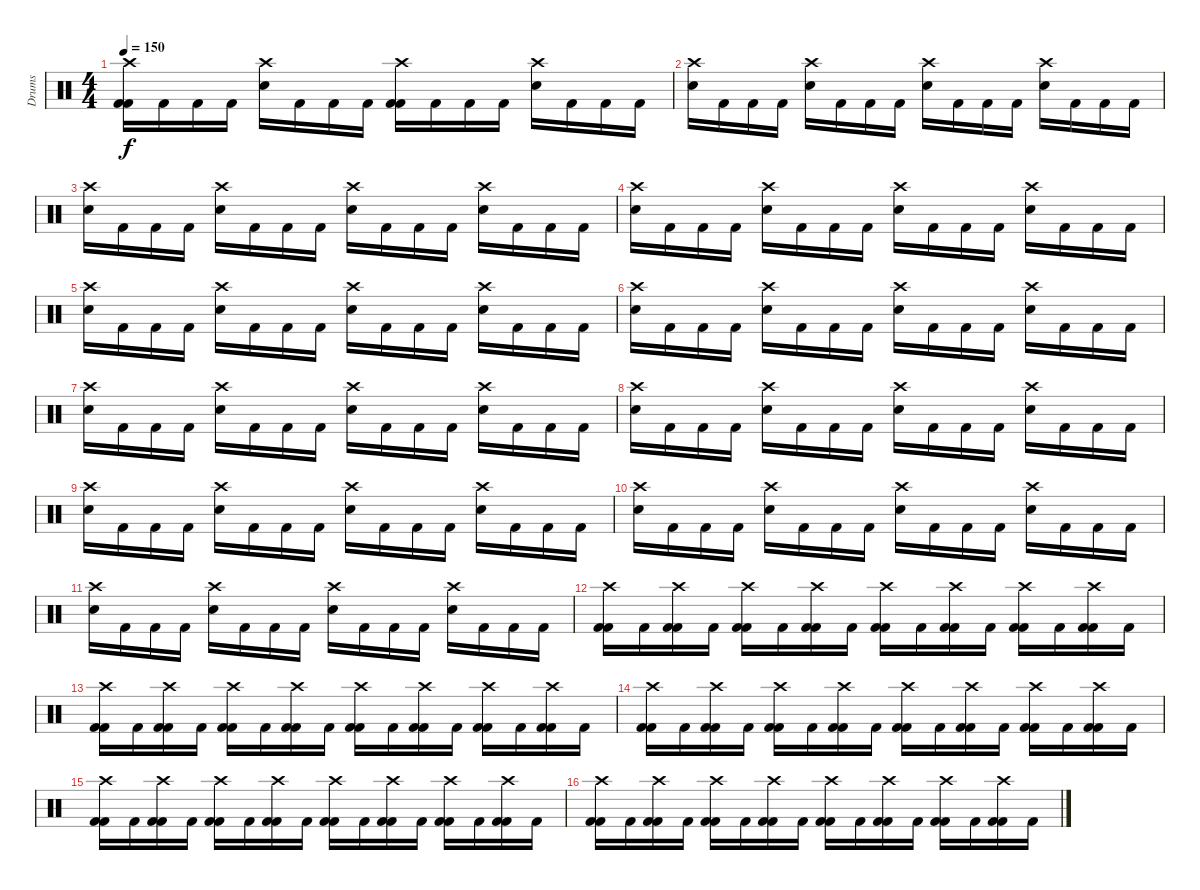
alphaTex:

\track ("Drums" "Drums") {instrument percussion}
\staff {score}
\articulation defaults
\ts (4 4)
\tempo 150
\clef neutral
\ks c
("Crash high (hit)" "Kick (hit) 2" "Kick (hit) 2").16{dy f} "Kick (hit) 2".16 "Kick (hit) 2".16 "Kick (hit) 2".16 ("Electric Snare (hit)" "Crash high (hit)").16 "Kick (hit) 2".16 "Kick (hit) 2".16 "Kick (hit) 2".16 ("Kick (hit) 2" "Kick (hit) 2" "Crash high (hit)").16 "Kick (hit) 2".16 "Kick (hit) 2".16 "Kick (hit) 2".16 ("Crash high (hit)" "Electric Snare (hit)").16 "Kick (hit) 2".16 "Kick (hit) 2".16 "Kick (hit) 2".16 |
("Crash high (hit)" "Electric Snare (hit)").16 "Kick (hit) 2".16 "Kick (hit) 2".16 "Kick (hit) 2".16 ("Crash high (hit)" "Electric Snare (hit)").16 "Kick (hit) 2".16 "Kick (hit) 2".16 "Kick (hit) 2".16 ("Electric Snare (hit)" "Crash high (hit)").16 "Kick (hit) 2".16 "Kick (hit) 2".16 "Kick (hit) 2".16 ("Crash high (hit)" "Electric Snare (hit)").16 "Kick (hit) 2".16 "Kick (hit) 2".16 "Kick (hit) 2".16 |
("Crash high (hit)" "Electric Snare (hit)").16 "Kick (hit) 2".16 "Kick (hit) 2".16 "Kick (hit) 2".16 ("Crash high (hit)" "Electric Snare (hit)").16 "Kick (hit) 2".16 "Kick (hit) 2".16 "Kick (hit) 2".16 ("Electric Snare (hit)" "Crash high (hit)").16 "Kick (hit) 2".16 "Kick (hit) 2".16 "Kick (hit) 2".16 ("Crash high (hit)" "Electric Snare (hit)").16 "Kick (hit) 2".16 "Kick (hit) 2".16 "Kick (hit) 2".16 |
("Crash high (hit)" "Electric Snare (hit)").16 "Kick (hit) 2".16 "Kick (hit) 2".16 "Kick (hit) 2".16 ("Crash high (hit)" "Electric Snare (hit)").16 "Kick (hit) 2".16 "Kick (hit) 2".16 "Kick (hit) 2".16 ("Electric Snare (hit)" "Crash high (hit)").16 "Kick (hit) 2".16 "Kick (hit) 2".16 "Kick (hit) 2".16 ("Crash high (hit)" "Electric Snare (hit)").16 "Kick (hit) 2".16 "Kick (hit) 2".16 "Kick (hit) 2".16 |
("Crash high (hit)" "Electric Snare (hit)").16 "Kick (hit) 2".16 "Kick (hit) 2".16 "Kick (hit) 2".16 ("Crash high (hit)" "Electric Snare (hit)").16 "Kick (hit) 2".16 "Kick (hit) 2".16 "Kick (hit) 2".16 ("Electric Snare (hit)" "Crash high (hit)").16 "Kick (hit) 2".16 "Kick (hit) 2".16 "Kick (hit) 2".16 ("Crash high (hit)" "Electric Snare (hit)").16 "Kick (hit) 2".16 "Kick (hit) 2".16 "Kick (hit) 2".16 |
("Crash high (hit)" "Electric Snare (hit)").16 "Kick (hit) 2".16 "Kick (hit) 2".16 "Kick (hit) 2".16 ("Crash high (hit)" "Electric Snare (hit)").16 "Kick (hit) 2".16 "Kick (hit) 2".16 "Kick (hit) 2".16 ("Electric Snare (hit)" "Crash high (hit)").16 "Kick (hit) 2".16 "Kick (hit) 2".16 "Kick (hit) 2".16 ("Crash high (hit)" "Electric Snare (hit)").16 "Kick (hit) 2".16 "Kick (hit) 2".16 "Kick (hit) 2".16 |
("Crash high (hit)" "Electric Snare (hit)").16 "Kick (hit) 2".16 "Kick (hit) 2".16 "Kick (hit) 2".16 ("Crash high (hit)" "Electric Snare (hit)").16 "Kick (hit) 2".16 "Kick (hit) 2".16 "Kick (hit) 2".16 ("Electric Snare (hit)" "Crash high (hit)").16 "Kick (hit) 2".16 "Kick (hit) 2".16 "Kick (hit) 2".16 ("Crash high (hit)" "Electric Snare (hit)").16 "Kick (hit) 2".16 "Kick (hit) 2".16 "Kick (hit) 2".16 |
("Crash high (hit)" "Electric Snare (hit)").16 "Kick (hit) 2".16 "Kick (hit) 2".16 "Kick (hit) 2".16 ("Crash high (hit)" "Electric Snare (hit)").16 "Kick (hit) 2".16 "Kick (hit) 2".16 "Kick (hit) 2".16 ("Electric Snare (hit)" "Crash high (hit)").16 "Kick (hit) 2".16 "Kick (hit) 2".16 "Kick (hit) 2".16 ("Crash high (hit)" "Electric Snare (hit)").16 "Kick (hit) 2".16 "Kick (hit) 2".16 "Kick (hit) 2".16 |
("Crash high (hit)" "Electric Snare (hit)").16 "Kick (hit) 2".16 "Kick (hit) 2".16 "Kick (hit) 2".16 ("Crash high (hit)" "Electric Snare (hit)").16 "Kick (hit) 2".16 "Kick (hit) 2".16 "Kick (hit) 2".16 ("Electric Snare (hit)" "Crash high (hit)").16 "Kick (hit) 2".16 "Kick (hit) 2".16 "Kick (hit) 2".16 ("Crash high (hit)" "Electric Snare (hit)").16 "Kick (hit) 2".16 "Kick (hit) 2".16 "Kick (hit) 2".16 |
("Crash high (hit)" "Electric Snare (hit)").16 "Kick (hit) 2".16 "Kick (hit) 2".16 "Kick (hit) 2".16 ("Crash high (hit)" "Electric Snare (hit)").16 "Kick (hit) 2".16 "Kick (hit) 2".16 "Kick (hit) 2".16 ("Electric Snare (hit)" "Crash high (hit)").16 "Kick (hit) 2".16 "Kick (hit) 2".16 "Kick (hit) 2".16 ("Crash high (hit)" "Electric Snare (hit)").16 "Kick (hit) 2".16 "Kick (hit) 2".16 "Kick (hit) 2".16 |
("Crash high (hit)" "Electric Snare (hit)").16 "Kick (hit) 2".16 "Kick (hit) 2".16 "Kick (hit) 2".16 ("Crash high (hit)" "Electric Snare (hit)").16 "Kick (hit) 2".16 "Kick (hit) 2".16 "Kick (hit) 2".16 ("Electric Snare (hit)" "Crash high (hit)").16 "Kick (hit) 2".16 "Kick (hit) 2".16 "Kick (hit) 2".16 ("Crash high (hit)" "Electric Snare (hit)").16 "Kick (hit) 2".16 "Kick (hit) 2".16 "Kick (hit) 2".16 |
("Crash high (hit)" "Kick (hit) 2" "Kick (hit) 2").16 "Kick (hit) 2".16 ("Kick (hit) 2" "Kick (hit) 2" "Crash high (hit)").16 "Kick (hit) 2".16 ("Crash high (hit)" "Kick (hit) 2" "Kick (hit) 2").16 "Kick (hit) 2".16 ("Kick (hit) 2" "Kick (hit) 2" "Crash high (hit)").16 "Kick (hit) 2".16 ("Crash high (hit)" "Kick (hit) 2" "Kick (hit) 2").16 "Kick (hit) 2".16 ("Kick (hit) 2" "Kick (hit) 2" "Crash high (hit)").16 "Kick (hit) 2".16 ("Kick (hit) 2" "Crash high (hit)" "Kick (hit) 2").16 "Kick (hit) 2".16 ("Crash high (hit)" "Kick (hit) 2" "Kick (hit) 2").16 "Kick (hit) 2".16 |
("Crash high (hit)" "Kick (hit) 2" "Kick (hit) 2").16 "Kick (hit) 2".16 ("Kick (hit) 2" "Kick (hit) 2" "Crash high (hit)").16 "Kick (hit) 2".16 ("Crash high (hit)" "Kick (hit) 2" "Kick (hit) 2").16 "Kick (hit) 2".16 ("Kick (hit) 2" "Kick (hit) 2" "Crash high (hit)").16 "Kick (hit) 2".16 ("Crash high (hit)" "Kick (hit) 2" "Kick (hit) 2").16 "Kick (hit) 2".16 ("Kick (hit) 2" "Kick (hit) 2" "Crash high (hit)").16 "Kick (hit) 2".16 ("Kick (hit) 2" "Crash high (hit)" "Kick (hit) 2").16 "Kick (hit) 2".16 ("Crash high (hit)" "Kick (hit) 2" "Kick (hit) 2").16 "Kick (hit) 2".16 |
("Crash high (hit)" "Kick (hit) 2" "Kick (hit) 2").16 "Kick (hit) 2".16 ("Kick (hit) 2" "Kick (hit) 2" "Crash high (hit)").16 "Kick (hit) 2".16 ("Crash high (hit)" "Kick (hit) 2" "Kick (hit) 2").16 "Kick (hit) 2".16 ("Kick (hit) 2" "Kick (hit) 2" "Crash high (hit)").16 "Kick (hit) 2".16 ("Crash high (hit)" "Kick (hit) 2" "Kick (hit) 2").16 "Kick (hit) 2".16 ("Kick (hit) 2" "Kick (hit) 2" "Crash high (hit)").16 "Kick (hit) 2".16 ("Kick (hit) 2" "Crash high (hit)" "Kick (hit) 2").16 "Kick (hit) 2".16 ("Crash high (hit)" "Kick (hit) 2" "Kick (hit) 2").16 "Kick (hit) 2".16 |
("Crash high (hit)" "Kick (hit) 2" "Kick (hit) 2").16 "Kick (hit) 2".16 ("Kick (hit) 2" "Kick (hit) 2" "Crash high (hit)").16 "Kick (hit) 2".16 ("Crash high (hit)" "Kick (hit) 2" "Kick (hit) 2").16 "Kick (hit) 2".16 ("Kick (hit) 2" "Kick (hit) 2" "Crash high (hit)").16 "Kick (hit) 2".16 ("Crash high (hit)" "Kick (hit) 2" "Kick (hit) 2").16 "Kick (hit) 2".16 ("Kick (hit) 2" "Kick (hit) 2" "Crash high (hit)").16 "Kick (hit) 2".16 ("Kick (hit) 2" "Crash high (hit)" "Kick (hit) 2").16 "Kick (hit) 2".16 ("Crash high (hit)" "Kick (hit) 2" "Kick (hit) 2").16 "Kick (hit) 2".16 |
("Crash high (hit)" "Kick (hit) 2" "Kick (hit) 2").16 "Kick (hit) 2".16 ("Kick (hit) 2" "Kick (hit) 2" "Crash high (hit)").16 "Kick (hit) 2".16 ("Crash high (hit)" "Kick (hit) 2" "Kick (hit) 2").16 "Kick (hit) 2".16 ("Kick (hit) 2" "Kick (hit) 2" "Crash high (hit)").16 "Kick (hit) 2".16 ("Crash high (hit)" "Kick (hit) 2" "Kick (hit) 2").16 "Kick (hit) 2".16 ("Kick (hit) 2" "Kick (hit) 2" "Crash high (hit)").16 "Kick (hit) 2".16 ("Kick (hit) 2" "Crash high (hit)" "Kick (hit) 2").16 "Kick (hit) 2".16 ("Crash high (hit)" "Kick (hit) 2" "Kick (hit) 2").16 "Kick (hit) 2".16
